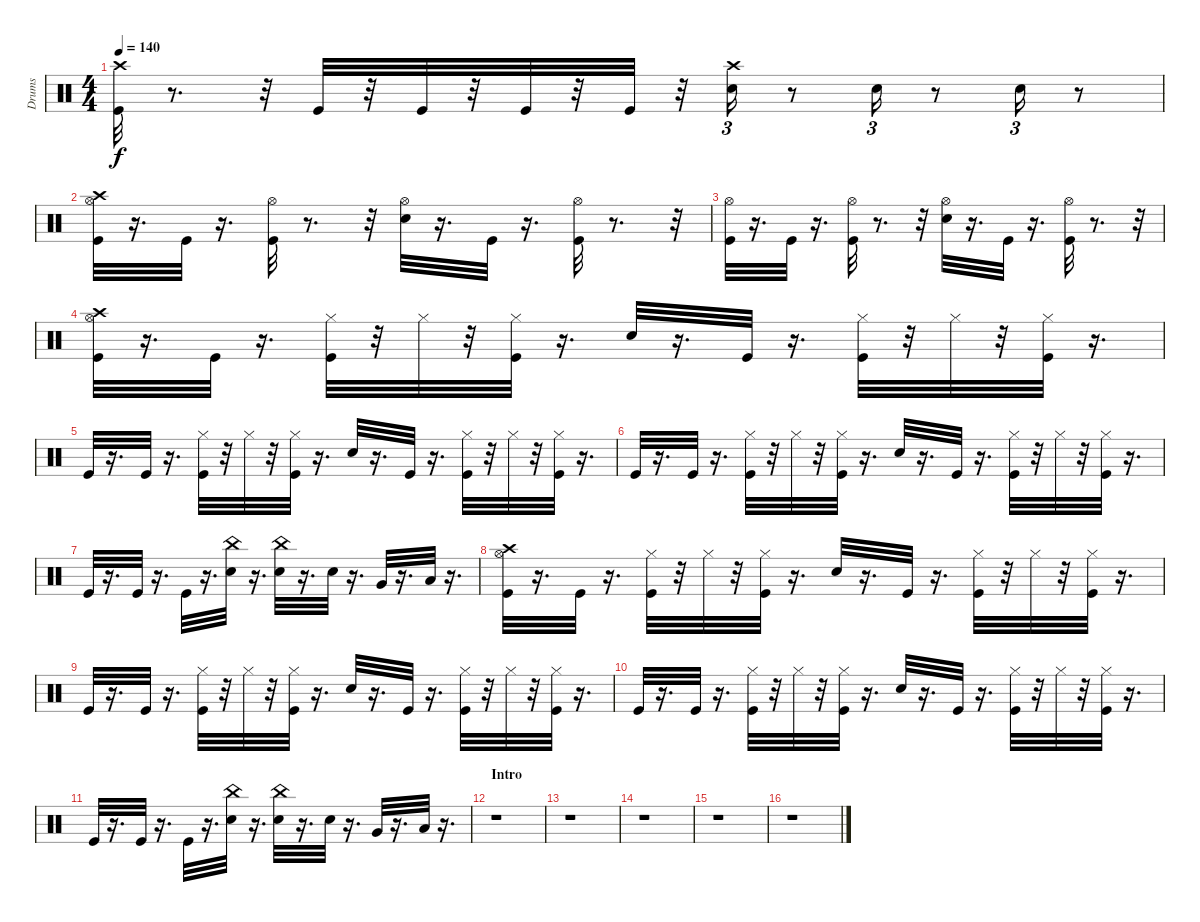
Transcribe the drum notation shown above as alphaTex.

\track ("Drums" "Drums") {instrument percussion}
\staff {score}
\articulation defaults
\ts (4 4)
\tempo 140
\clef neutral
\ks c
("Crash high (hit)" "Kick (hit)").32{dy f} r.8{d} r.32 "Kick (hit)".32 r.32 "Kick (hit)".32 r.32 "Kick (hit)".32 r.32 "Kick (hit)".32 r.32 ("Crash high (hit)" "Electric Snare (hit)").16{tu (3 2)} r.8 "Electric Snare (hit)".16{tu (3 2)} r.8 "Electric Snare (hit)".16{tu (3 2)} r.8 |
("Hi-Hat (open)" "Crash high (hit)" "Kick (hit)").32 r.16{d} "Kick (hit)".32 r.16{d} ("Hi-Hat (open)" "Kick (hit)").32 r.8{d} r.32 ("Hi-Hat (open)" "Electric Snare (hit)").32 r.16{d} "Kick (hit)".32 r.16{d} ("Kick (hit)" "Hi-Hat (open)").32 r.8{d} r.32 |
("Hi-Hat (open)" "Kick (hit)").32 r.16{d} "Kick (hit)".32 r.16{d} ("Kick (hit)" "Hi-Hat (open)").32 r.8{d} r.32 ("Electric Snare (hit)" "Hi-Hat (open)").32 r.16{d} "Kick (hit)".32 r.16{d} ("Kick (hit)" "Hi-Hat (open)").32 r.8{d} r.32 |
("Hi-Hat (open)" "Crash high (hit)" "Kick (hit)").32 r.16{d} "Kick (hit)".32 r.16{d} ("Hi-Hat (closed)" "Kick (hit)").32 r.32 "Hi-Hat (closed)".32 r.32 ("Hi-Hat (closed)" "Kick (hit)").32 r.16{d} "Electric Snare (hit)".32 r.16{d} "Kick (hit)".32 r.16{d} ("Hi-Hat (closed)" "Kick (hit)").32 r.32 "Hi-Hat (closed)".32 r.32 ("Hi-Hat (closed)" "Kick (hit)").32 r.16{d} |
"Kick (hit)".32 r.16{d} "Kick (hit)".32 r.16{d} ("Hi-Hat (closed)" "Kick (hit)").32 r.32 "Hi-Hat (closed)".32 r.32 ("Hi-Hat (closed)" "Kick (hit)").32 r.16{d} "Electric Snare (hit)".32 r.16{d} "Kick (hit)".32 r.16{d} ("Hi-Hat (closed)" "Kick (hit)").32 r.32 "Hi-Hat (closed)".32 r.32 ("Hi-Hat (closed)" "Kick (hit)").32 r.16{d} |
"Kick (hit)".32 r.16{d} "Kick (hit)".32 r.16{d} ("Hi-Hat (closed)" "Kick (hit)").32 r.32 "Hi-Hat (closed)".32 r.32 ("Hi-Hat (closed)" "Kick (hit)").32 r.16{d} "Electric Snare (hit)".32 r.16{d} "Kick (hit)".32 r.16{d} ("Hi-Hat (closed)" "Kick (hit)").32 r.32 "Hi-Hat (closed)".32 r.32 ("Hi-Hat (closed)" "Kick (hit)").32 r.16{d} |
"Kick (hit)".32 r.16{d} "Kick (hit)".32 r.16{d} "Kick (hit)".32 r.16{d} ("China (hit)" "Electric Snare (hit)").32 r.16{d} ("China (hit)" "Electric Snare (hit)").32 r.16{d} "Electric Snare (hit)".32 r.16{d} "Very Low Tom (hit)".32 r.16{d} "Low Floor Tom (hit)".32 r.16{d} |
("Hi-Hat (open)" "Crash high (hit)" "Kick (hit)").32 r.16{d} "Kick (hit)".32 r.16{d} ("Hi-Hat (closed)" "Kick (hit)").32 r.32 "Hi-Hat (closed)".32 r.32 ("Hi-Hat (closed)" "Kick (hit)").32 r.16{d} "Electric Snare (hit)".32 r.16{d} "Kick (hit)".32 r.16{d} ("Hi-Hat (closed)" "Kick (hit)").32 r.32 "Hi-Hat (closed)".32 r.32 ("Hi-Hat (closed)" "Kick (hit)").32 r.16{d} |
"Kick (hit)".32 r.16{d} "Kick (hit)".32 r.16{d} ("Hi-Hat (closed)" "Kick (hit)").32 r.32 "Hi-Hat (closed)".32 r.32 ("Hi-Hat (closed)" "Kick (hit)").32 r.16{d} "Electric Snare (hit)".32 r.16{d} "Kick (hit)".32 r.16{d} ("Hi-Hat (closed)" "Kick (hit)").32 r.32 "Hi-Hat (closed)".32 r.32 ("Hi-Hat (closed)" "Kick (hit)").32 r.16{d} |
"Kick (hit)".32 r.16{d} "Kick (hit)".32 r.16{d} ("Hi-Hat (closed)" "Kick (hit)").32 r.32 "Hi-Hat (closed)".32 r.32 ("Hi-Hat (closed)" "Kick (hit)").32 r.16{d} "Electric Snare (hit)".32 r.16{d} "Kick (hit)".32 r.16{d} ("Hi-Hat (closed)" "Kick (hit)").32 r.32 "Hi-Hat (closed)".32 r.32 ("Hi-Hat (closed)" "Kick (hit)").32 r.16{d} |
"Kick (hit)".32 r.16{d} "Kick (hit)".32 r.16{d} "Kick (hit)".32 r.16{d} ("China (hit)" "Electric Snare (hit)").32 r.16{d} ("China (hit)" "Electric Snare (hit)").32 r.16{d} "Electric Snare (hit)".32 r.16{d} "Very Low Tom (hit)".32 r.16{d} "Low Floor Tom (hit)".32 r.16{d} |
\section ("" "Intro")
r.1 |
r.1 |
r.1 |
r.1 |
r.1
